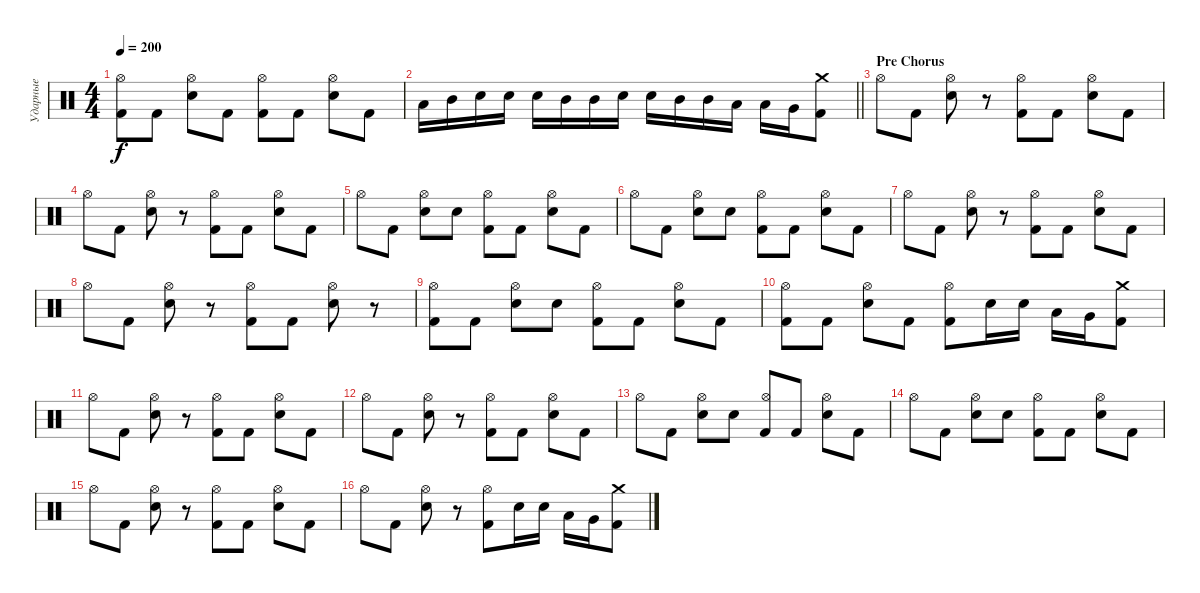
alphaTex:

\track ("Ударные" "Ударные") {instrument percussion}
\staff {score}
\articulation defaults
\ts (4 4)
\tempo 200
\clef neutral
\ks c
("Hi-Hat (open)" "Kick (hit) 2").8{dy f} "Kick (hit) 2".8 ("Hi-Hat (open)" "Electric Snare (hit)").8 "Kick (hit) 2".8 ("Hi-Hat (open)" "Kick (hit) 2").8 "Kick (hit) 2".8 ("Hi-Hat (open)" "Electric Snare (hit)").8 "Kick (hit) 2".8 |
\barLineRight lightlight "Low Tom (hit)".16 "Mid Tom (hit)".16 "Electric Snare (hit)".16 "Electric Snare (hit)".16 "Electric Snare (hit)".16 "Mid Tom (hit)".16 "Mid Tom (hit)".16 "Electric Snare (hit)".16 "Electric Snare (hit)".16 "Mid Tom (hit)".16 "Mid Tom (hit)".16 "Low Tom (hit)".16 "Low Tom (hit)".16 "Very Low Tom (hit)".16
("Crash medium (hit)" "Kick (hit) 2").8 |
\section ("" "Pre Chorus")
"Hi-Hat (open)".8 "Kick (hit) 2".8 ("Hi-Hat (open)" "Electric Snare (hit)").8 r.8 ("Hi-Hat (open)" "Kick (hit) 2").8 "Kick (hit) 2".8 ("Hi-Hat (open)" "Electric Snare (hit)").8 "Kick (hit) 2".8 |
"Hi-Hat (open)".8 "Kick (hit) 2".8 ("Hi-Hat (open)" "Electric Snare (hit)").8 r.8 ("Hi-Hat (open)" "Kick (hit) 2").8 "Kick (hit) 2".8 ("Hi-Hat (open)" "Electric Snare (hit)").8 "Kick (hit) 2".8 |
"Hi-Hat (open)".8 "Kick (hit) 2".8 ("Hi-Hat (open)" "Electric Snare (hit)").8 "Electric Snare (hit)".8 ("Hi-Hat (open)" "Kick (hit) 2").8 "Kick (hit) 2".8 ("Hi-Hat (open)" "Electric Snare (hit)").8 "Kick (hit) 2".8 |
"Hi-Hat (open)".8 "Kick (hit) 2".8 ("Hi-Hat (open)" "Electric Snare (hit)").8 "Electric Snare (hit)".8 ("Hi-Hat (open)" "Kick (hit) 2").8 "Kick (hit) 2".8 ("Hi-Hat (open)" "Electric Snare (hit)").8 "Kick (hit) 2".8 |
"Hi-Hat (open)".8 "Kick (hit) 2".8 ("Hi-Hat (open)" "Electric Snare (hit)").8 r.8 ("Hi-Hat (open)" "Kick (hit) 2").8 "Kick (hit) 2".8 ("Hi-Hat (open)" "Electric Snare (hit)").8 "Kick (hit) 2".8 |
"Hi-Hat (open)".8 "Kick (hit) 2".8 ("Hi-Hat (open)" "Electric Snare (hit)").8 r.8 ("Hi-Hat (open)" "Kick (hit) 2").8 "Kick (hit) 2".8 ("Hi-Hat (open)" "Electric Snare (hit)").8 r.8 |
("Hi-Hat (open)" "Kick (hit) 2").8 "Kick (hit) 2".8 ("Hi-Hat (open)" "Electric Snare (hit)").8 "Electric Snare (hit)".8 ("Hi-Hat (open)" "Kick (hit) 2").8 "Kick (hit) 2".8 ("Hi-Hat (open)" "Electric Snare (hit)").8 "Kick (hit) 2".8 |
("Hi-Hat (open)" "Kick (hit) 2").8 "Kick (hit) 2".8 ("Hi-Hat (open)" "Electric Snare (hit)").8 "Kick (hit) 2".8 ("Hi-Hat (open)" "Kick (hit) 2").8 "Electric Snare (hit)".16 "Electric Snare (hit)".16 "Low Tom (hit)".16 "Very Low Tom (hit)".16 ("Crash medium (hit)" "Kick (hit) 2").8 |
"Hi-Hat (open)".8 "Kick (hit) 2".8 ("Hi-Hat (open)" "Electric Snare (hit)").8 r.8 ("Hi-Hat (open)" "Kick (hit) 2").8 "Kick (hit) 2".8 ("Hi-Hat (open)" "Electric Snare (hit)").8 "Kick (hit) 2".8 |
"Hi-Hat (open)".8 "Kick (hit) 2".8 ("Hi-Hat (open)" "Electric Snare (hit)").8 r.8 ("Hi-Hat (open)" "Kick (hit) 2").8 "Kick (hit) 2".8 ("Hi-Hat (open)" "Electric Snare (hit)").8 "Kick (hit) 2".8 |
"Hi-Hat (open)".8 "Kick (hit) 2".8 ("Hi-Hat (open)" "Electric Snare (hit)").8 "Electric Snare (hit)".8 ("Hi-Hat (open)" "Kick (hit) 2").8{beam Up} "Kick (hit) 2".8{beam Up} ("Hi-Hat (open)" "Electric Snare (hit)").8 "Kick (hit) 2".8 |
"Hi-Hat (open)".8 "Kick (hit) 2".8 ("Hi-Hat (open)" "Electric Snare (hit)").8 "Electric Snare (hit)".8 ("Hi-Hat (open)" "Kick (hit) 2").8 "Kick (hit) 2".8 ("Hi-Hat (open)" "Electric Snare (hit)").8 "Kick (hit) 2".8 |
"Hi-Hat (open)".8 "Kick (hit) 2".8 ("Hi-Hat (open)" "Electric Snare (hit)").8 r.8 ("Hi-Hat (open)" "Kick (hit) 2").8 "Kick (hit) 2".8 ("Hi-Hat (open)" "Electric Snare (hit)").8 "Kick (hit) 2".8 |
"Hi-Hat (open)".8 "Kick (hit) 2".8 ("Hi-Hat (open)" "Electric Snare (hit)").8 r.8 ("Hi-Hat (open)" "Kick (hit) 2").8 "Electric Snare (hit)".16 "Electric Snare (hit)".16 "Low Tom (hit)".16 "Very Low Tom (hit)".16 ("Crash medium (hit)" "Kick (hit) 2").8
